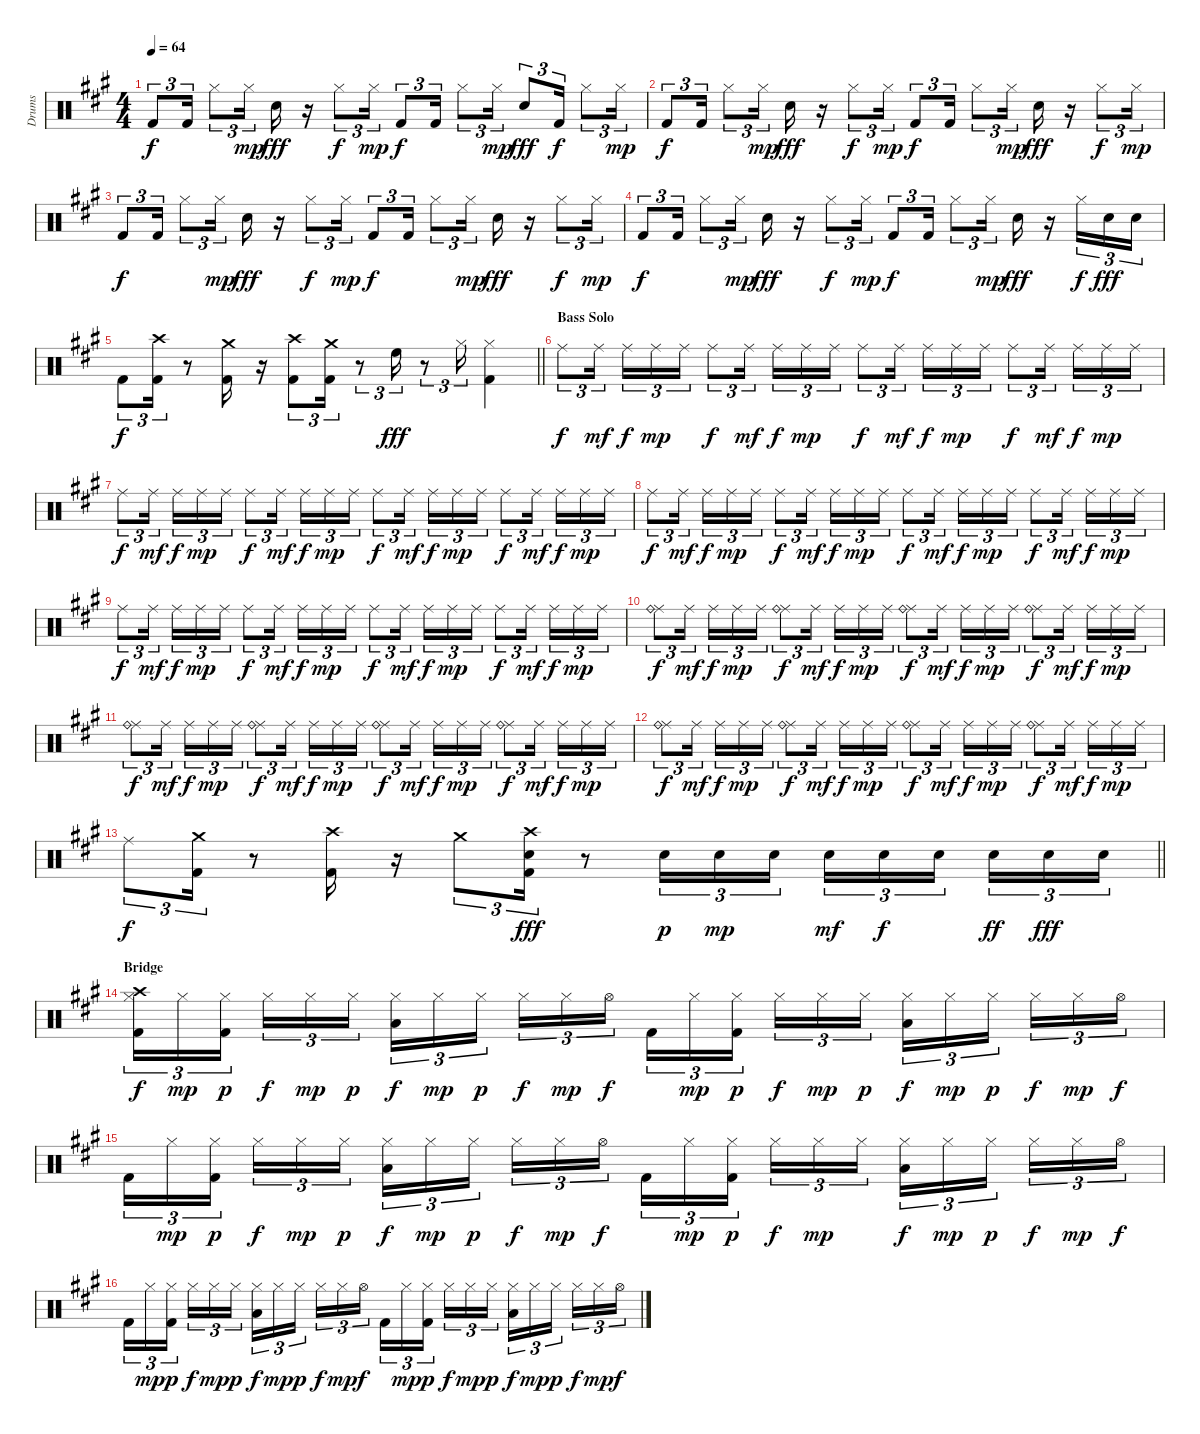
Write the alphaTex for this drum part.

\track ("Drums          " "Drums     ") {instrument percussion}
\staff {score}
\articulation defaults
\ts (4 4)
\tempo 64
\clef neutral
\ks f#minor "Kick (hit) 2".8{tu (3 2) dy f} "Kick (hit) 2".16{tu (3 2)} "Hi-Hat (closed)".8{tu (3 2)} "Hi-Hat (closed)".16{tu (3 2) dy mp} "Snare (hit) 2".16{dy fff}
r.16 "Hi-Hat (closed)".8{tu (3 2) dy f} "Hi-Hat (closed)".16{tu (3 2) dy mp} "Kick (hit) 2".8{tu (3 2) dy f} "Kick (hit) 2".16{tu (3 2)} "Hi-Hat (closed)".8{tu (3 2)} "Hi-Hat (closed)".16{tu (3 2) dy mp} "Snare (hit) 2".8{tu (3 2) dy fff} "Kick (hit) 2".16{tu (3 2) dy f} "Hi-Hat (closed)".8{tu (3 2)} "Hi-Hat (closed)".16{tu (3 2) dy mp} |
"Kick (hit) 2".8{tu (3 2) dy f} "Kick (hit) 2".16{tu (3 2)} "Hi-Hat (closed)".8{tu (3 2)} "Hi-Hat (closed)".16{tu (3 2) dy mp} "Snare (hit) 2".16{dy fff} r.16 "Hi-Hat (closed)".8{tu (3 2) dy f} "Hi-Hat (closed)".16{tu (3 2) dy mp} "Kick (hit) 2".8{tu (3 2) dy f} "Kick (hit) 2".16{tu (3 2)} "Hi-Hat (closed)".8{tu (3 2)} "Hi-Hat (closed)".16{tu (3 2) dy mp} "Snare (hit) 2".16{dy fff} r.16 "Hi-Hat (closed)".8{tu (3 2) dy f} "Hi-Hat (closed)".16{tu (3 2) dy mp} |
"Kick (hit) 2".8{tu (3 2) dy f} "Kick (hit) 2".16{tu (3 2)} "Hi-Hat (closed)".8{tu (3 2)} "Hi-Hat (closed)".16{tu (3 2) dy mp} "Snare (hit) 2".16{dy fff} r.16 "Hi-Hat (closed)".8{tu (3 2) dy f} "Hi-Hat (closed)".16{tu (3 2) dy mp} "Kick (hit) 2".8{tu (3 2) dy f} "Kick (hit) 2".16{tu (3 2)} "Hi-Hat (closed)".8{tu (3 2)} "Hi-Hat (closed)".16{tu (3 2) dy mp} "Snare (hit) 2".16{dy fff} r.16 "Hi-Hat (closed)".8{tu (3 2) dy f} "Hi-Hat (closed)".16{tu (3 2) dy mp} |
"Kick (hit) 2".8{tu (3 2) dy f} "Kick (hit) 2".16{tu (3 2)} "Hi-Hat (closed)".8{tu (3 2)} "Hi-Hat (closed)".16{tu (3 2) dy mp} "Snare (hit) 2".16{dy fff} r.16 "Hi-Hat (closed)".8{tu (3 2) dy f} "Hi-Hat (closed)".16{tu (3 2) dy mp} "Kick (hit) 2".8{tu (3 2) dy f} "Kick (hit) 2".16{tu (3 2)} "Hi-Hat (closed)".8{tu (3 2)} "Hi-Hat (closed)".16{tu (3 2) dy mp} "Snare (hit) 2".16{dy fff} r.16 "Hi-Hat (closed)".16{tu (3 2) dy f} "Snare (hit) 2".16{tu (3 2) dy fff} "Snare (hit) 2".16{tu (3 2)} |
\barLineRight lightlight "Kick (hit) 2".8{tu (3 2) dy f}
("Kick (hit) 2" "Crash high (hit)").16{tu (3 2)} r.8 ("Kick (hit) 2" "Crash medium (hit)").16 r.16 ("Kick (hit) 2" "Crash high (hit)").8{tu (3 2)} ("Kick (hit) 2" "Crash medium (hit)").16{tu (3 2)} r.8{tu (3 2)} "High Floor Tom (hit)".16{tu (3 2) dy fff} r.8{tu (3 2)} "Hi-Hat (closed)".16{tu (3 2)} ("Kick (hit) 2" "Hi-Hat (closed)").4 |
\section ("" "Bass Solo")
"Ride (middle)".8{tu (3 2) dy f} "Ride (middle)".16{tu (3 2) dy mf beam splitsecondary} "Ride (middle)".16{tu (3 2) dy f} "Ride (middle)".16{tu (3 2) dy mp} "Ride (middle)".16{tu (3 2)} "Ride (middle)".8{tu (3 2) dy f} "Ride (middle)".16{tu (3 2) dy mf beam splitsecondary} "Ride (middle)".16{tu (3 2) dy f} "Ride (middle)".16{tu (3 2) dy mp} "Ride (middle)".16{tu (3 2)} "Ride (middle)".8{tu (3 2) dy f} "Ride (middle)".16{tu (3 2) dy mf beam splitsecondary} "Ride (middle)".16{tu (3 2) dy f} "Ride (middle)".16{tu (3 2) dy mp} "Ride (middle)".16{tu (3 2)} "Ride (middle)".8{tu (3 2) dy f} "Ride (middle)".16{tu (3 2) dy mf beam splitsecondary} "Ride (middle)".16{tu (3 2) dy f} "Ride (middle)".16{tu (3 2) dy mp} "Ride (middle)".16{tu (3 2)} |
"Ride (middle)".8{tu (3 2) dy f} "Ride (middle)".16{tu (3 2) dy mf beam splitsecondary} "Ride (middle)".16{tu (3 2) dy f} "Ride (middle)".16{tu (3 2) dy mp} "Ride (middle)".16{tu (3 2)} "Ride (middle)".8{tu (3 2) dy f} "Ride (middle)".16{tu (3 2) dy mf beam splitsecondary} "Ride (middle)".16{tu (3 2) dy f} "Ride (middle)".16{tu (3 2) dy mp} "Ride (middle)".16{tu (3 2)} "Ride (middle)".8{tu (3 2) dy f} "Ride (middle)".16{tu (3 2) dy mf beam splitsecondary} "Ride (middle)".16{tu (3 2) dy f} "Ride (middle)".16{tu (3 2) dy mp} "Ride (middle)".16{tu (3 2)} "Ride (middle)".8{tu (3 2) dy f} "Ride (middle)".16{tu (3 2) dy mf beam splitsecondary} "Ride (middle)".16{tu (3 2) dy f} "Ride (middle)".16{tu (3 2) dy mp} "Ride (middle)".16{tu (3 2)} |
"Ride (middle)".8{tu (3 2) dy f} "Ride (middle)".16{tu (3 2) dy mf beam splitsecondary} "Ride (middle)".16{tu (3 2) dy f} "Ride (middle)".16{tu (3 2) dy mp} "Ride (middle)".16{tu (3 2)} "Ride (middle)".8{tu (3 2) dy f} "Ride (middle)".16{tu (3 2) dy mf beam splitsecondary} "Ride (middle)".16{tu (3 2) dy f} "Ride (middle)".16{tu (3 2) dy mp} "Ride (middle)".16{tu (3 2)} "Ride (middle)".8{tu (3 2) dy f} "Ride (middle)".16{tu (3 2) dy mf beam splitsecondary} "Ride (middle)".16{tu (3 2) dy f} "Ride (middle)".16{tu (3 2) dy mp} "Ride (middle)".16{tu (3 2)} "Ride (middle)".8{tu (3 2) dy f} "Ride (middle)".16{tu (3 2) dy mf beam splitsecondary} "Ride (middle)".16{tu (3 2) dy f} "Ride (middle)".16{tu (3 2) dy mp} "Ride (middle)".16{tu (3 2)} |
"Ride (middle)".8{tu (3 2) dy f} "Ride (middle)".16{tu (3 2) dy mf beam splitsecondary} "Ride (middle)".16{tu (3 2) dy f} "Ride (middle)".16{tu (3 2) dy mp} "Ride (middle)".16{tu (3 2)} "Ride (middle)".8{tu (3 2) dy f} "Ride (middle)".16{tu (3 2) dy mf beam splitsecondary} "Ride (middle)".16{tu (3 2) dy f} "Ride (middle)".16{tu (3 2) dy mp} "Ride (middle)".16{tu (3 2)} "Ride (middle)".8{tu (3 2) dy f} "Ride (middle)".16{tu (3 2) dy mf beam splitsecondary} "Ride (middle)".16{tu (3 2) dy f} "Ride (middle)".16{tu (3 2) dy mp} "Ride (middle)".16{tu (3 2)} "Ride (middle)".8{tu (3 2) dy f} "Ride (middle)".16{tu (3 2) dy mf beam splitsecondary} "Ride (middle)".16{tu (3 2) dy f} "Ride (middle)".16{tu (3 2) dy mp} "Ride (middle)".16{tu (3 2)} |
("Ride (middle)" "Ride (bell)").8{tu (3 2) dy f} "Ride (middle)".16{tu (3 2) dy mf beam splitsecondary} "Ride (middle)".16{tu (3 2) dy f} "Ride (middle)".16{tu (3 2) dy mp} "Ride (middle)".16{tu (3 2)} ("Ride (middle)" "Ride (bell)").8{tu (3 2) dy f} "Ride (middle)".16{tu (3 2) dy mf beam splitsecondary} "Ride (middle)".16{tu (3 2) dy f} "Ride (middle)".16{tu (3 2) dy mp} "Ride (middle)".16{tu (3 2)} ("Ride (middle)" "Ride (bell)").8{tu (3 2) dy f} "Ride (middle)".16{tu (3 2) dy mf beam splitsecondary} "Ride (middle)".16{tu (3 2) dy f} "Ride (middle)".16{tu (3 2) dy mp} "Ride (middle)".16{tu (3 2)} ("Ride (middle)" "Ride (bell)").8{tu (3 2) dy f} "Ride (middle)".16{tu (3 2) dy mf beam splitsecondary} "Ride (middle)".16{tu (3 2) dy f} "Ride (middle)".16{tu (3 2) dy mp} "Ride (middle)".16{tu (3 2)} |
("Ride (middle)" "Ride (bell)").8{tu (3 2) dy f} "Ride (middle)".16{tu (3 2) dy mf beam splitsecondary} "Ride (middle)".16{tu (3 2) dy f} "Ride (middle)".16{tu (3 2) dy mp} "Ride (middle)".16{tu (3 2)} ("Ride (middle)" "Ride (bell)").8{tu (3 2) dy f} "Ride (middle)".16{tu (3 2) dy mf beam splitsecondary} "Ride (middle)".16{tu (3 2) dy f} "Ride (middle)".16{tu (3 2) dy mp} "Ride (middle)".16{tu (3 2)} ("Ride (middle)" "Ride (bell)").8{tu (3 2) dy f} "Ride (middle)".16{tu (3 2) dy mf beam splitsecondary} "Ride (middle)".16{tu (3 2) dy f} "Ride (middle)".16{tu (3 2) dy mp} "Ride (middle)".16{tu (3 2)} ("Ride (middle)" "Ride (bell)").8{tu (3 2) dy f} "Ride (middle)".16{tu (3 2) dy mf beam splitsecondary} "Ride (middle)".16{tu (3 2) dy f} "Ride (middle)".16{tu (3 2) dy mp} "Ride (middle)".16{tu (3 2)} |
("Ride (middle)" "Ride (bell)").8{tu (3 2) dy f} "Ride (middle)".16{tu (3 2) dy mf beam splitsecondary} "Ride (middle)".16{tu (3 2) dy f} "Ride (middle)".16{tu (3 2) dy mp} "Ride (middle)".16{tu (3 2)} ("Ride (middle)" "Ride (bell)").8{tu (3 2) dy f} "Ride (middle)".16{tu (3 2) dy mf beam splitsecondary} "Ride (middle)".16{tu (3 2) dy f} "Ride (middle)".16{tu (3 2) dy mp} "Ride (middle)".16{tu (3 2)} ("Ride (middle)" "Ride (bell)").8{tu (3 2) dy f} "Ride (middle)".16{tu (3 2) dy mf beam splitsecondary} "Ride (middle)".16{tu (3 2) dy f} "Ride (middle)".16{tu (3 2) dy mp} "Ride (middle)".16{tu (3 2)} ("Ride (middle)" "Ride (bell)").8{tu (3 2) dy f} "Ride (middle)".16{tu (3 2) dy mf beam splitsecondary} "Ride (middle)".16{tu (3 2) dy f} "Ride (middle)".16{tu (3 2) dy mp} "Ride (middle)".16{tu (3 2)} |
\barLineRight lightlight "Ride (middle)".8{tu (3 2) dy f}
("Kick (hit) 2" "Crash medium (hit)").16{tu (3 2)} r.8 ("Kick (hit) 2" "Crash high (hit)").16 r.16 "Crash medium (hit)".8{tu (3 2)} ("Kick (hit) 2" "Crash high (hit)" "Snare (hit) 2").16{tu (3 2) dy fff} r.8 "Snare (hit) 2".16{tu (3 2) dy p} "Snare (hit) 2".16{tu (3 2) dy mp} "Snare (hit) 2".16{tu (3 2)} "Snare (hit) 2".16{tu (3 2) dy mf} "Snare (hit) 2".16{tu (3 2) dy f} "Snare (hit) 2".16{tu (3 2) beam splitsecondary} "Snare (hit) 2".16{tu (3 2) dy ff} "Snare (hit) 2".16{tu (3 2) dy fff} "Snare (hit) 2".16{tu (3 2)} |
\section ("" "Bridge")
("Crash high (hit)" "Hi-Hat (closed)" "Kick (hit) 2").16{tu (3 2) dy f} "Hi-Hat (closed)".16{tu (3 2) dy mp} ("Hi-Hat (closed)" "Kick (hit) 2").16{tu (3 2) dy p beam splitsecondary} "Hi-Hat (closed)".16{tu (3 2) dy f} "Hi-Hat (closed)".16{tu (3 2) dy mp} "Hi-Hat (closed)".16{tu (3 2) dy p} ("Hi-Hat (closed)" "Low Floor Tom (hit)").16{tu (3 2) dy f} "Hi-Hat (closed)".16{tu (3 2) dy mp} "Hi-Hat (closed)".16{tu (3 2) dy p beam splitsecondary} "Hi-Hat (closed)".16{tu (3 2) dy f} "Hi-Hat (closed)".16{tu (3 2) dy mp} "Hi-Hat (open)".16{tu (3 2) dy f} "Kick (hit) 2".16{tu (3 2)} "Hi-Hat (closed)".16{tu (3 2) dy mp} ("Hi-Hat (closed)" "Kick (hit) 2").16{tu (3 2) dy p beam splitsecondary} "Hi-Hat (closed)".16{tu (3 2) dy f} "Hi-Hat (closed)".16{tu (3 2) dy mp} "Hi-Hat (closed)".16{tu (3 2) dy p} ("Hi-Hat (closed)" "Low Floor Tom (hit)").16{tu (3 2) dy f} "Hi-Hat (closed)".16{tu (3 2) dy mp} "Hi-Hat (closed)".16{tu (3 2) dy p beam splitsecondary} "Hi-Hat (closed)".16{tu (3 2) dy f} "Hi-Hat (closed)".16{tu (3 2) dy mp} "Hi-Hat (open)".16{tu (3 2) dy f} |
"Kick (hit) 2".16{tu (3 2)} "Hi-Hat (closed)".16{tu (3 2) dy mp} ("Hi-Hat (closed)" "Kick (hit) 2").16{tu (3 2) dy p beam splitsecondary} "Hi-Hat (closed)".16{tu (3 2) dy f} "Hi-Hat (closed)".16{tu (3 2) dy mp} "Hi-Hat (closed)".16{tu (3 2) dy p} ("Hi-Hat (closed)" "Low Floor Tom (hit)").16{tu (3 2) dy f} "Hi-Hat (closed)".16{tu (3 2) dy mp} "Hi-Hat (closed)".16{tu (3 2) dy p beam splitsecondary} "Hi-Hat (closed)".16{tu (3 2) dy f} "Hi-Hat (closed)".16{tu (3 2) dy mp} "Hi-Hat (open)".16{tu (3 2) dy f} "Kick (hit) 2".16{tu (3 2)} "Hi-Hat (closed)".16{tu (3 2) dy mp} ("Hi-Hat (closed)" "Kick (hit) 2").16{tu (3 2) dy p beam splitsecondary} "Hi-Hat (closed)".16{tu (3 2) dy f} "Hi-Hat (closed)".16{tu (3 2) dy mp} "Hi-Hat (closed)".16{tu (3 2)} ("Hi-Hat (closed)" "Low Floor Tom (hit)").16{tu (3 2) dy f} "Hi-Hat (closed)".16{tu (3 2) dy mp} "Hi-Hat (closed)".16{tu (3 2) dy p beam splitsecondary} "Hi-Hat (closed)".16{tu (3 2) dy f} "Hi-Hat (closed)".16{tu (3 2) dy mp} "Hi-Hat (open)".16{tu (3 2) dy f} |
"Kick (hit) 2".16{tu (3 2)} "Hi-Hat (closed)".16{tu (3 2) dy mp} ("Hi-Hat (closed)" "Kick (hit) 2").16{tu (3 2) dy p beam splitsecondary} "Hi-Hat (closed)".16{tu (3 2) dy f} "Hi-Hat (closed)".16{tu (3 2) dy mp} "Hi-Hat (closed)".16{tu (3 2) dy p} ("Hi-Hat (closed)" "Low Floor Tom (hit)").16{tu (3 2) dy f} "Hi-Hat (closed)".16{tu (3 2) dy mp} "Hi-Hat (closed)".16{tu (3 2) dy p beam splitsecondary} "Hi-Hat (closed)".16{tu (3 2) dy f} "Hi-Hat (closed)".16{tu (3 2) dy mp} "Hi-Hat (open)".16{tu (3 2) dy f} "Kick (hit) 2".16{tu (3 2)} "Hi-Hat (closed)".16{tu (3 2) dy mp} ("Hi-Hat (closed)" "Kick (hit) 2").16{tu (3 2) dy p beam splitsecondary} "Hi-Hat (closed)".16{tu (3 2) dy f} "Hi-Hat (closed)".16{tu (3 2) dy mp} "Hi-Hat (closed)".16{tu (3 2) dy p} ("Hi-Hat (closed)" "Low Floor Tom (hit)").16{tu (3 2) dy f} "Hi-Hat (closed)".16{tu (3 2) dy mp} "Hi-Hat (closed)".16{tu (3 2) dy p beam splitsecondary} "Hi-Hat (closed)".16{tu (3 2) dy f} "Hi-Hat (closed)".16{tu (3 2) dy mp} "Hi-Hat (open)".16{tu (3 2) dy f}
